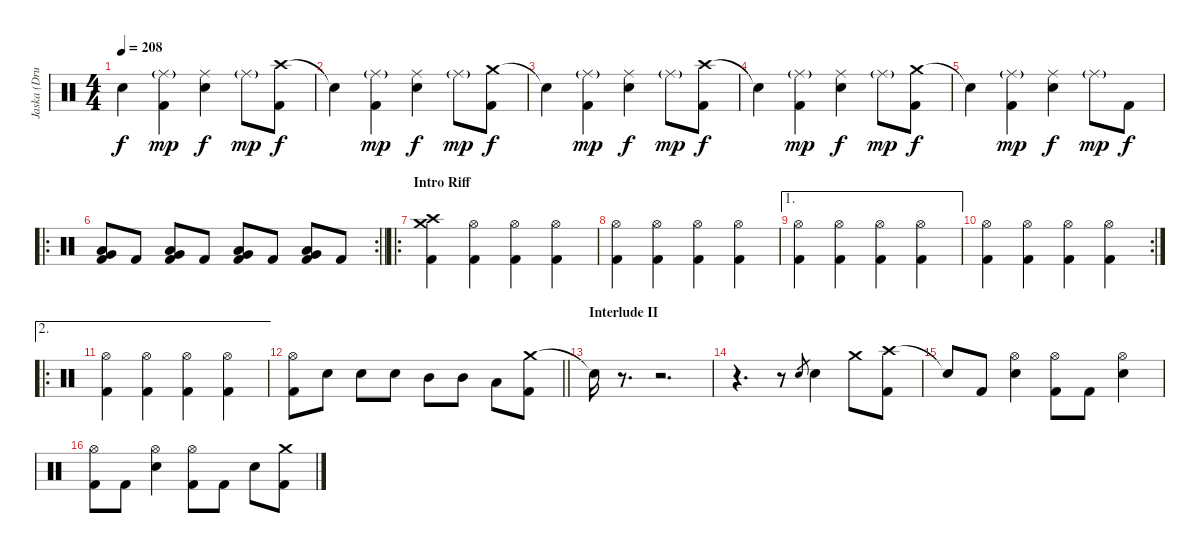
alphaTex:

\track ("Jaska (Drums)" "Jaska (Dru") {instrument percussion}
\staff {score}
\articulation defaults
\ts (4 4)
\tempo 208
\clef neutral
\ks c "Snare (hit)"{t}.4{dy f}
("Ride (middle)"{g} "Kick (hit) 2").4{dy mp} ("Ride (middle)" "Electric Snare (hit)").4{dy f} "Ride (middle)"{g}.8{dy mp} ("Crash high (hit)" "Kick (hit) 2").8{dy f} |
"Snare (hit)"{t}.4 ("Ride (middle)"{g} "Kick (hit) 2").4{dy mp} ("Ride (middle)" "Electric Snare (hit)").4{dy f} "Ride (middle)"{g}.8{dy mp} ("Crash medium (hit)" "Kick (hit) 2").8{dy f} |
"Snare (hit)"{t}.4 ("Ride (middle)"{g} "Kick (hit) 2").4{dy mp} ("Ride (middle)" "Electric Snare (hit)").4{dy f} "Ride (middle)"{g}.8{dy mp} ("Crash high (hit)" "Kick (hit) 2").8{dy f} |
"Snare (hit)"{t}.4 ("Ride (middle)"{g} "Kick (hit) 2").4{dy mp} ("Ride (middle)" "Electric Snare (hit)").4{dy f} "Ride (middle)"{g}.8{dy mp} ("Crash medium (hit)" "Kick (hit) 2").8{dy f} |
"Snare (hit)"{t}.4 ("Ride (middle)"{g} "Kick (hit) 2").4{dy mp} ("Ride (middle)" "Electric Snare (hit)").4{dy f} "Ride (middle)"{g}.8{dy mp} "Kick (hit) 2".8{dy f} |
\ro
\rc 2
\barLineRight lightlight
("Very Low Tom (hit)" "Low Floor Tom (hit)" "Kick (hit) 2").8 "Kick (hit) 2".8 ("Very Low Tom (hit)" "Low Floor Tom (hit)" "Kick (hit) 2").8 "Kick (hit) 2".8 ("Very Low Tom (hit)" "Low Floor Tom (hit)" "Kick (hit) 2").8 "Kick (hit) 2".8 ("Very Low Tom (hit)" "Low Floor Tom (hit)" "Kick (hit) 2").8 "Kick (hit) 2".8 |
\ro
\section ("" "Intro Riff")
("Crash medium (hit)" "Crash high (hit)" "Kick (hit) 2").4 ("Hi-Hat (open)" "Kick (hit) 2").4 ("Hi-Hat (open)" "Kick (hit) 2").4 ("Hi-Hat (open)" "Kick (hit) 2").4 |
("Hi-Hat (open)" "Kick (hit) 2").4 ("Hi-Hat (open)" "Kick (hit) 2").4 ("Hi-Hat (open)" "Kick (hit) 2").4 ("Hi-Hat (open)" "Kick (hit) 2").4 |
\ae 1
("Hi-Hat (open)" "Kick (hit) 2").4 ("Hi-Hat (open)" "Kick (hit) 2").4 ("Hi-Hat (open)" "Kick (hit) 2").4 ("Hi-Hat (open)" "Kick (hit) 2").4 |
\rc 2
("Hi-Hat (open)" "Kick (hit) 2").4 ("Hi-Hat (open)" "Kick (hit) 2").4 ("Hi-Hat (open)" "Kick (hit) 2").4 ("Hi-Hat (open)" "Kick (hit) 2").4 |
\ae 2
\ro
("Hi-Hat (open)" "Kick (hit) 2").4 ("Hi-Hat (open)" "Kick (hit) 2").4 ("Hi-Hat (open)" "Kick (hit) 2").4 ("Hi-Hat (open)" "Kick (hit) 2").4 |
\barLineRight lightlight
("Hi-Hat (open)" "Kick (hit) 2").8 "Electric Snare (hit)".8 "Electric Snare (hit)".8 "Electric Snare (hit)".8 "Mid Tom (hit)".8 "Mid Tom (hit)".8 "Low Tom (hit)".8 ("Crash medium (hit)" "Kick (hit) 2").8 |
\section ("" "Interlude II")
"Snare (hit)"{t}.16 r.8{d volume 0} r.2{d} |
r.4{d} r.8{volume 16} "Electric Snare (hit)".8{gr} "Electric Snare (hit)".4 "Crash medium (hit)".8 ("Crash high (hit)" "Kick (hit) 2").8 |
"Snare (hit)"{t}.8 "Kick (hit) 2".8 ("Hi-Hat (open)" "Electric Snare (hit)").4 ("Hi-Hat (open)" "Kick (hit) 2").8 "Kick (hit) 2".8 ("Hi-Hat (open)" "Electric Snare (hit)").4 |
("Hi-Hat (open)" "Kick (hit) 2").8 "Kick (hit) 2".8 ("Hi-Hat (open)" "Electric Snare (hit)").4 ("Hi-Hat (open)" "Kick (hit) 2").8 "Kick (hit) 2".8 "Electric Snare (hit)".8 ("Crash medium (hit)" "Kick (hit) 2").8
